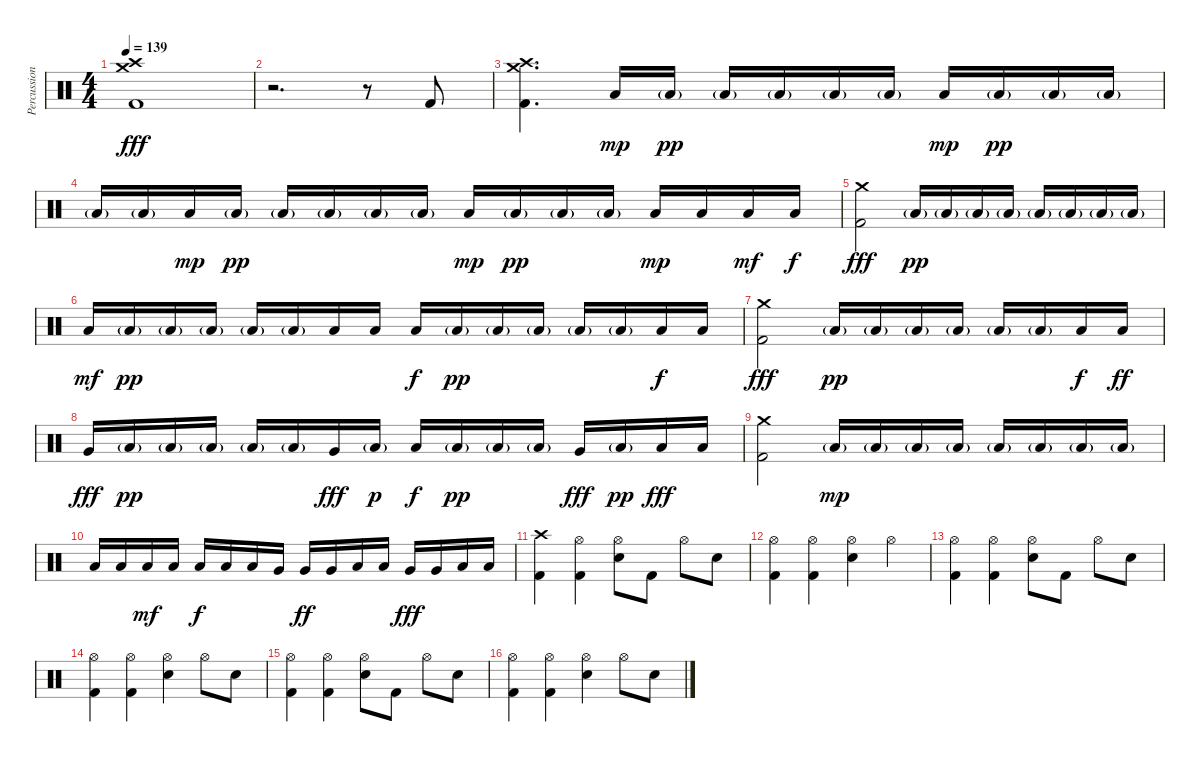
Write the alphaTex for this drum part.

\track ("Percussion" "Percussion") {instrument percussion}
\staff {score}
\articulation defaults
\ts (4 4)
\tempo 139
\clef neutral
\ks c
("Crash high (hit)" "Crash medium (hit)" "Kick (hit) 2").1{dy fff} |
r.2{d} r.8 "Kick (hit) 2".8 |
("Crash high (hit)" "Crash medium (hit)" "Kick (hit) 2").4{d} "Low Floor Tom (hit)".16{dy mp} "Low Floor Tom (hit)"{g}.16{dy pp} "Low Floor Tom (hit)"{g}.16 "Low Floor Tom (hit)"{g}.16 "Low Floor Tom (hit)"{g}.16 "Low Floor Tom (hit)"{g}.16 "Low Floor Tom (hit)".16{dy mp} "Low Floor Tom (hit)"{g}.16{dy pp} "Low Floor Tom (hit)"{g}.16 "Low Floor Tom (hit)"{g}.16 |
"Low Floor Tom (hit)"{g}.16 "Low Floor Tom (hit)"{g}.16 "Low Floor Tom (hit)".16{dy mp} "Low Floor Tom (hit)"{g}.16{dy pp} "Low Floor Tom (hit)"{g}.16 "Low Floor Tom (hit)"{g}.16 "Low Floor Tom (hit)"{g}.16 "Low Floor Tom (hit)"{g}.16 "Low Floor Tom (hit)".16{dy mp} "Low Floor Tom (hit)"{g}.16{dy pp} "Low Floor Tom (hit)"{g}.16 "Low Floor Tom (hit)"{g}.16 "Low Floor Tom (hit)".16{dy mp} "Low Floor Tom (hit)".16 "Low Floor Tom (hit)".16{dy mf} "Low Floor Tom (hit)".16{dy f} |
("Crash medium (hit)" "Kick (hit) 2").2{dy fff} "Low Floor Tom (hit)"{g}.16{dy pp} "Low Floor Tom (hit)"{g}.16 "Low Floor Tom (hit)"{g}.16 "Low Floor Tom (hit)"{g}.16 "Low Floor Tom (hit)"{g}.16 "Low Floor Tom (hit)"{g}.16 "Low Floor Tom (hit)"{g}.16 "Low Floor Tom (hit)"{g}.16 |
"Low Floor Tom (hit)".16{dy mf} "Low Floor Tom (hit)"{g}.16{dy pp} "Low Floor Tom (hit)"{g}.16 "Low Floor Tom (hit)"{g}.16 "Low Floor Tom (hit)"{g}.16 "Low Floor Tom (hit)"{g}.16 "Low Floor Tom (hit)".16 "Low Floor Tom (hit)".16 "Low Floor Tom (hit)".16{dy f} "Low Floor Tom (hit)"{g}.16{dy pp} "Low Floor Tom (hit)"{g}.16 "Low Floor Tom (hit)"{g}.16 "Low Floor Tom (hit)"{g}.16 "Low Floor Tom (hit)"{g}.16 "Low Floor Tom (hit)".16{dy f} "Low Floor Tom (hit)".16 |
("Crash medium (hit)" "Kick (hit) 2").2{dy fff} "Low Floor Tom (hit)"{g}.16{dy pp} "Low Floor Tom (hit)"{g}.16 "Low Floor Tom (hit)"{g}.16 "Low Floor Tom (hit)"{g}.16 "Low Floor Tom (hit)"{g}.16 "Low Floor Tom (hit)"{g}.16 "Low Floor Tom (hit)".16{dy f} "Low Floor Tom (hit)".16{dy ff} |
"Very Low Tom (hit)".16{dy fff} "Low Floor Tom (hit)"{g}.16{dy pp} "Low Floor Tom (hit)"{g}.16 "Low Floor Tom (hit)"{g}.16 "Low Floor Tom (hit)"{g}.16 "Low Floor Tom (hit)"{g}.16 "Very Low Tom (hit)".16{dy fff} "Low Floor Tom (hit)"{g}.16{dy p} "Low Floor Tom (hit)".16{dy f} "Low Floor Tom (hit)"{g}.16{dy pp} "Low Floor Tom (hit)"{g}.16 "Low Floor Tom (hit)"{g}.16 "Very Low Tom (hit)".16{dy fff} "Low Floor Tom (hit)"{g}.16{dy pp} "Low Floor Tom (hit)".16{dy fff} "Low Floor Tom (hit)".16 |
("Crash medium (hit)" "Kick (hit) 2").2 "Low Floor Tom (hit)"{g}.16{dy mp} "Low Floor Tom (hit)"{g}.16 "Low Floor Tom (hit)"{g}.16 "Low Floor Tom (hit)"{g}.16 "Low Floor Tom (hit)"{g}.16 "Low Floor Tom (hit)"{g}.16 "Low Floor Tom (hit)"{g}.16 "Low Floor Tom (hit)"{g}.16 |
"Low Floor Tom (hit)".16 "Low Floor Tom (hit)".16 "Low Floor Tom (hit)".16{dy mf} "Low Floor Tom (hit)".16 "Low Floor Tom (hit)".16{dy f} "Low Floor Tom (hit)".16 "Low Floor Tom (hit)".16 "Very Low Tom (hit)".16 "Very Low Tom (hit)".16{dy ff} "Very Low Tom (hit)".16 "Low Tom (hit)".16 "Low Tom (hit)".16 "Very Low Tom (hit)".16{dy fff} "Very Low Tom (hit)".16 "Low Floor Tom (hit)".16 "Low Floor Tom (hit)".16 |
("Crash high (hit)" "Kick (hit) 2").4 ("Hi-Hat (open)" "Kick (hit) 2").4 ("Hi-Hat (open)" "Electric Snare (hit)").8 "Kick (hit) 2".8 "Hi-Hat (open)".8 "Electric Snare (hit)".8 |
("Hi-Hat (open)" "Kick (hit) 2").4 ("Hi-Hat (open)" "Kick (hit) 2").4 ("Hi-Hat (open)" "Electric Snare (hit)").4 "Hi-Hat (open)".4 |
("Hi-Hat (open)" "Kick (hit) 2").4 ("Hi-Hat (open)" "Kick (hit) 2").4 ("Hi-Hat (open)" "Electric Snare (hit)").8 "Kick (hit) 2".8 "Hi-Hat (open)".8 "Electric Snare (hit)".8 |
("Hi-Hat (open)" "Kick (hit) 2").4 ("Hi-Hat (open)" "Kick (hit) 2").4 ("Hi-Hat (open)" "Electric Snare (hit)").4 "Hi-Hat (open)".8 "Electric Snare (hit)".8 |
("Hi-Hat (open)" "Kick (hit) 2").4 ("Hi-Hat (open)" "Kick (hit) 2").4 ("Hi-Hat (open)" "Electric Snare (hit)").8 "Kick (hit) 2".8 "Hi-Hat (open)".8 "Electric Snare (hit)".8 |
("Hi-Hat (open)" "Kick (hit) 2").4 ("Hi-Hat (open)" "Kick (hit) 2").4 ("Hi-Hat (open)" "Electric Snare (hit)").4 "Hi-Hat (open)".8 "Electric Snare (hit)".8
